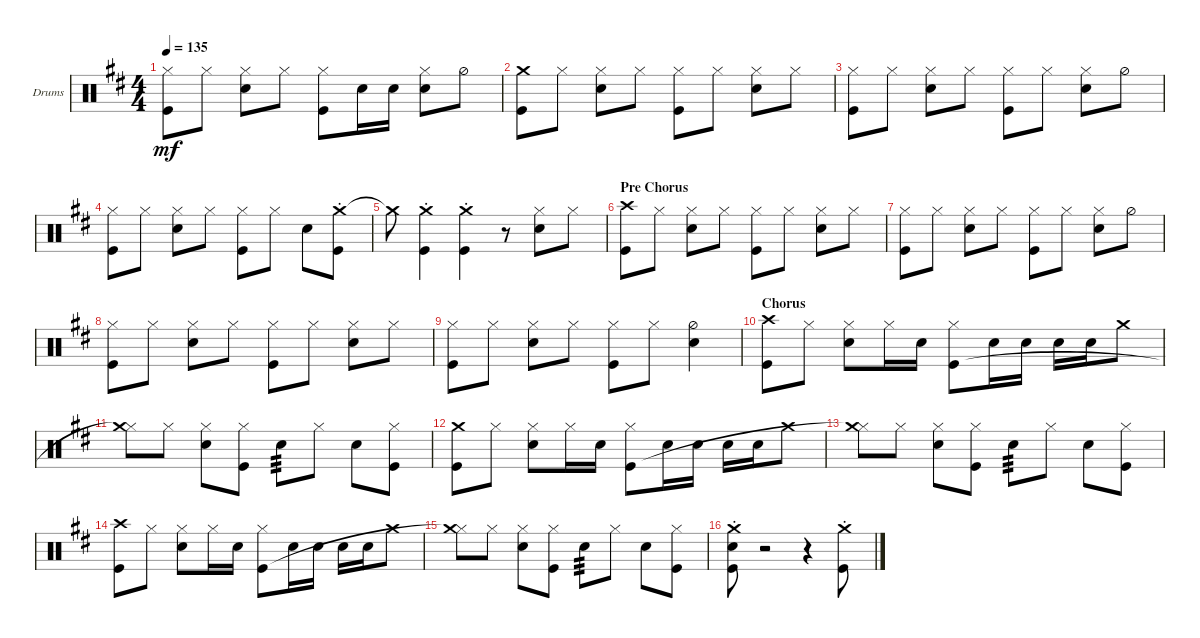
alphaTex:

\defaultSystemsLayout 4
\bracketExtendMode groupsimilarinstruments
\firstSystemTrackNameOrientation horizontal
\otherSystemsTrackNameOrientation horizontal
\track ("Drumkit" "Drums") {instrument percussion}
\staff {score}
\articulation defaults
\ts (4 4)
\tempo 135
\clef neutral
\ks bminor
("Hi-Hat (closed)" "Kick (hit)").8{dy mf} "Hi-Hat (closed)".8 ("Snare (hit) 2" "Hi-Hat (closed)").8 "Hi-Hat (closed)".8 ("Kick (hit)" "Hi-Hat (closed)").8 "Snare (hit) 2".16 "Snare (hit) 2".16 ("Snare (hit) 2" "Hi-Hat (closed)").8 "Hi-Hat (half)".8 |
("Crash medium (hit)" "Kick (hit)").8 "Hi-Hat (closed)".8 ("Snare (hit) 2" "Hi-Hat (closed)").8 "Hi-Hat (closed)".8 ("Kick (hit)" "Hi-Hat (closed)").8 "Hi-Hat (closed)".8 ("Snare (hit) 2" "Hi-Hat (closed)").8 "Hi-Hat (closed)".8 |
("Hi-Hat (closed)" "Kick (hit)").8 "Hi-Hat (closed)".8 ("Snare (hit) 2" "Hi-Hat (closed)").8 "Hi-Hat (closed)".8 ("Kick (hit)" "Hi-Hat (closed)").8 "Hi-Hat (closed)".8 ("Snare (hit) 2" "Hi-Hat (closed)").8 "Hi-Hat (half)".8 |
("Hi-Hat (closed)" "Kick (hit)").8 "Hi-Hat (closed)".8 ("Snare (hit) 2" "Hi-Hat (closed)").8 "Hi-Hat (closed)".8 ("Kick (hit)" "Hi-Hat (closed)").8 "Hi-Hat (closed)".8 "Snare (hit) 2".8 ("Crash medium (hit)"{st} "Kick (hit)").8 |
"Crash medium (hit)"{t}.8 ("Crash medium (hit)"{st} "Kick (hit)").4 ("Crash medium (hit)"{st} "Kick (hit)").4 r.8 ("Snare (hit) 2" "Hi-Hat (closed)").8 "Hi-Hat (closed)".8 |
\section ("" "Pre Chorus")
("Crash high (hit)" "Kick (hit)").8 "Hi-Hat (closed)".8 ("Hi-Hat (closed)" "Snare (hit) 2").8 "Hi-Hat (closed)".8 ("Hi-Hat (closed)" "Kick (hit)").8 "Hi-Hat (closed)".8 ("Hi-Hat (closed)" "Snare (hit) 2").8 "Hi-Hat (closed)".8 |
("Hi-Hat (closed)" "Kick (hit)").8 "Hi-Hat (closed)".8 ("Hi-Hat (closed)" "Snare (hit) 2").8 "Hi-Hat (closed)".8 ("Hi-Hat (closed)" "Kick (hit)").8 "Hi-Hat (closed)".8 ("Hi-Hat (closed)" "Snare (hit) 2").8 "Hi-Hat (half)".8 |
("Hi-Hat (closed)" "Kick (hit)").8 "Hi-Hat (closed)".8 ("Hi-Hat (closed)" "Snare (hit) 2").8 "Hi-Hat (closed)".8 ("Hi-Hat (closed)" "Kick (hit)").8 "Hi-Hat (closed)".8 ("Hi-Hat (closed)" "Snare (hit) 2").8 "Hi-Hat (closed)".8 |
("Hi-Hat (closed)" "Kick (hit)").8 "Hi-Hat (closed)".8 ("Hi-Hat (closed)" "Snare (hit) 2").8 "Hi-Hat (closed)".8 ("Hi-Hat (closed)" "Kick (hit)").8 "Hi-Hat (closed)".8 ("Hi-Hat (half)" "Snare (hit) 2").4 |
\section ("" "Chorus")
("Crash high (hit)" "Kick (hit)").8 "Hi-Hat (closed)".8 ("Snare (hit) 2" "Hi-Hat (closed)").8 "Hi-Hat (closed)".16 "Snare (hit) 2".16 ("Hi-Hat (closed)" "Kick (hit)").8 "Snare (hit) 2".16 "Snare (hit) 2".16 "Snare (hit) 2".16 "Snare (hit) 2".16 "Crash medium (hit)".8 |
("Hi-Hat (closed)" "Crash medium (hit)"{t}).8 "Hi-Hat (closed)".8 ("Snare (hit) 2" "Hi-Hat (closed)").8 ("Kick (hit)" "Hi-Hat (closed)").8 "Snare (hit) 2".8{tp 3} "Hi-Hat (closed)".8 "Snare (hit) 2".8 ("Hi-Hat (closed)" "Kick (hit)").8 |
("Kick (hit)" "Crash medium (hit)").8 "Hi-Hat (closed)".8 ("Snare (hit) 2" "Hi-Hat (closed)").8 "Hi-Hat (closed)".16 "Snare (hit) 2".16 ("Hi-Hat (closed)" "Kick (hit)").8 "Snare (hit) 2".16 "Snare (hit) 2".16 "Snare (hit) 2".16 "Snare (hit) 2".16 "Crash medium (hit)".8 |
("Hi-Hat (closed)" "Crash medium (hit)"{t}).8 "Hi-Hat (closed)".8 ("Snare (hit) 2" "Hi-Hat (closed)").8 ("Kick (hit)" "Hi-Hat (closed)").8 "Snare (hit) 2".8{tp 3} "Hi-Hat (closed)".8 "Snare (hit) 2".8 ("Hi-Hat (closed)" "Kick (hit)").8 |
("Crash high (hit)" "Kick (hit)").8 "Hi-Hat (closed)".8 ("Snare (hit) 2" "Hi-Hat (closed)").8 "Hi-Hat (closed)".16 "Snare (hit) 2".16 ("Hi-Hat (closed)" "Kick (hit)").8 "Snare (hit) 2".16 "Snare (hit) 2".16 "Snare (hit) 2".16 "Snare (hit) 2".16 "Crash medium (hit)".8 |
("Hi-Hat (closed)" "Crash medium (hit)"{t}).8 "Hi-Hat (closed)".8 ("Snare (hit) 2" "Hi-Hat (closed)").8 ("Kick (hit)" "Hi-Hat (closed)").8 "Snare (hit) 2".8{tp 3} "Hi-Hat (closed)".8 "Snare (hit) 2".8 ("Hi-Hat (closed)" "Kick (hit)").8 |
("Crash medium (hit)"{st} "Kick (hit)"{st} "Snare (hit) 2"{st}).8 r.2 r.4 ("Crash medium (hit)"{st} "Kick (hit)").8
